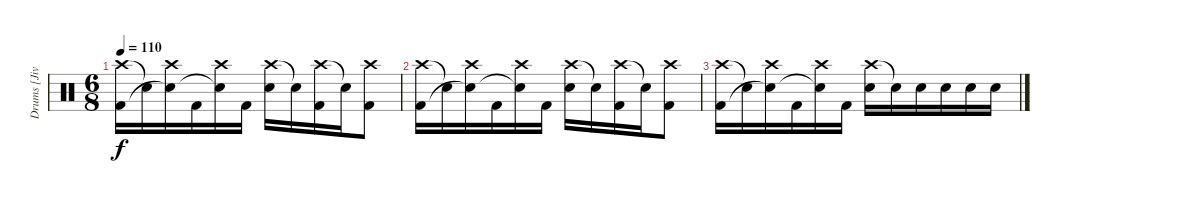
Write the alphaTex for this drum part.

\track ("Drums [Jivarp]" "Drums [Jiv") {instrument percussion}
\staff {score}
\articulation defaults
\ts (6 8)
\tempo 110
\clef neutral
\ks c
("Crash high (hit)" "Kick (hit) 2").16{dy f} "Snare (hit)"{t}.16 ("Crash high (hit)" "Snare (hit)"{t}).16 "Kick (hit) 2".16 ("Crash high (hit)" "Snare (hit)"{t}).16 "Kick (hit) 2".16 ("Crash high (hit)" "Electric Snare (hit)").16 "Snare (hit)"{t}.16 ("Crash high (hit)" "Kick (hit) 2").16 "Snare (hit)"{t}.16 ("Crash high (hit)" "Kick (hit) 2").8 |
("Crash high (hit)" "Kick (hit) 2").16 "Snare (hit)"{t}.16 ("Crash high (hit)" "Snare (hit)"{t}).16 "Kick (hit) 2".16 ("Crash high (hit)" "Snare (hit)"{t}).16 "Kick (hit) 2".16 ("Crash high (hit)" "Electric Snare (hit)").16 "Snare (hit)"{t}.16 ("Crash high (hit)" "Kick (hit) 2").16 "Snare (hit)"{t}.16 ("Crash high (hit)" "Kick (hit) 2").8 |
("Crash high (hit)" "Kick (hit) 2").16 "Snare (hit)"{t}.16 ("Crash high (hit)" "Snare (hit)"{t}).16 "Kick (hit) 2".16 ("Crash high (hit)" "Snare (hit)"{t}).16 "Kick (hit) 2".16 ("Crash high (hit)" "Electric Snare (hit)").16 "Snare (hit)"{t}.16 "Electric Snare (hit)".16 "Electric Snare (hit)".16 "Electric Snare (hit)".16 "Electric Snare (hit)".16
